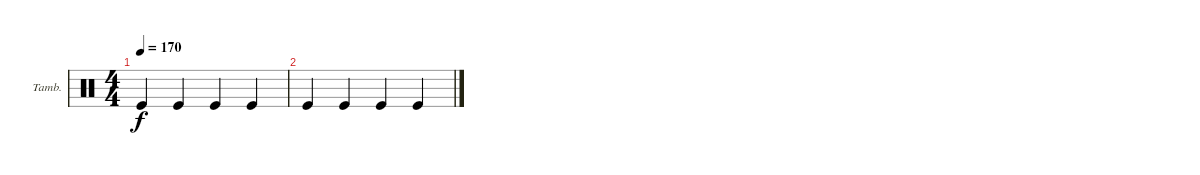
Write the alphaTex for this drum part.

\bracketExtendMode groupsimilarinstruments
\firstSystemTrackNameOrientation horizontal
\otherSystemsTrackNameOrientation horizontal
\track ("Tambourine" "Tamb.") {instrument percussion}
\staff {score}
\articulation defaults
\ts (4 4)
\tempo 170
\clef neutral
\scale
0.333333
\ks c "Kick (hit)".4{dy f} "Kick (hit)".4 "Kick (hit)".4 "Kick (hit)".4
|
\scale
0.333333 "Kick (hit)".4 "Kick (hit)".4 "Kick (hit)".4 "Kick (hit)".4 |
\scale
0.333333 |
\scale
0.333333 |
\scale
0.333333 |
\scale
0.333333 |
\scale
0.333333 |
\scale
0.333333 |
\scale
0.333333 |
\scale
0.333333 |
\scale
0.333333 |
\scale
0.333333 |
\scale
0.333333 |
\scale
0.333333 |
\scale
0.333333 |
\scale
0.333333
